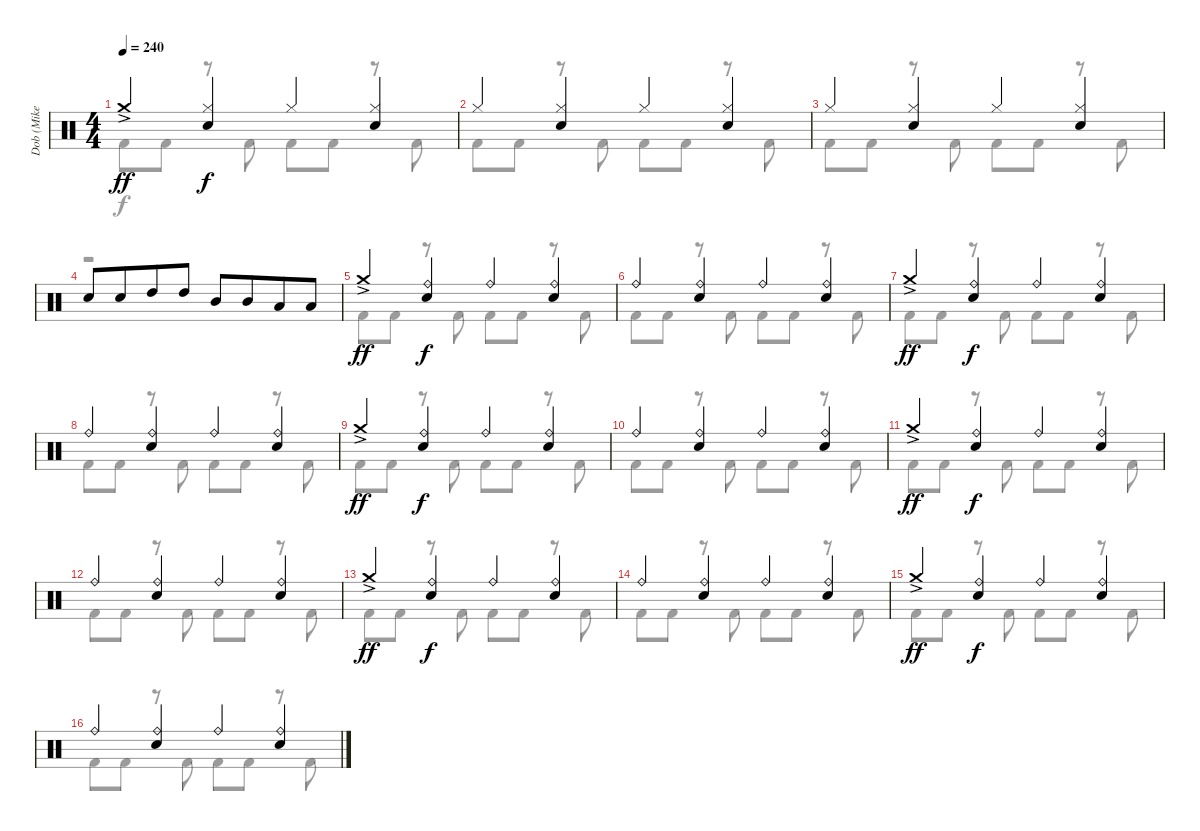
\track ("Dob (Mike Terrana)" "Dob (Mike ") {instrument percussion}
\staff {score}
\articulation defaults
\voice
\ts (4 4)
\tempo 240
\clef neutral
\ks c "Crash medium (hit)"{ac}.4{dy ff}
("Hi-Hat (closed)" "Electric Snare (hit)").4{dy f} "Hi-Hat (closed)".4 ("Hi-Hat (closed)" "Electric Snare (hit)").4 |
"Hi-Hat (closed)".4 ("Hi-Hat (closed)" "Electric Snare (hit)").4 "Hi-Hat (closed)".4 ("Hi-Hat (closed)" "Electric Snare (hit)").4 |
"Hi-Hat (closed)".4 ("Hi-Hat (closed)" "Electric Snare (hit)").4 "Hi-Hat (closed)".4 ("Hi-Hat (closed)" "Electric Snare (hit)").4 |
"Electric Snare (hit)".8 "Electric Snare (hit)".8{beam merge} "High Tom (hit)".8 "High Tom (hit)".8 "Mid Tom (hit)".8 "Mid Tom (hit)".8{beam merge} "Low Tom (hit)".8 "Low Tom (hit)".8 |
"Crash medium (hit)"{ac}.4{dy ff} ("Ride (bell)" "Electric Snare (hit)").4{dy f} "Ride (bell)".4 ("Ride (bell)" "Electric Snare (hit)").4 |
"Ride (bell)".4 ("Ride (bell)" "Electric Snare (hit)").4 "Ride (bell)".4 ("Ride (bell)" "Electric Snare (hit)").4 |
"Crash medium (hit)"{ac}.4{dy ff} ("Ride (bell)" "Electric Snare (hit)").4{dy f} "Ride (bell)".4 ("Ride (bell)" "Electric Snare (hit)").4 |
"Ride (bell)".4 ("Ride (bell)" "Electric Snare (hit)").4 "Ride (bell)".4 ("Ride (bell)" "Electric Snare (hit)").4 |
"Crash medium (hit)"{ac}.4{dy ff} ("Ride (bell)" "Electric Snare (hit)").4{dy f} "Ride (bell)".4 ("Ride (bell)" "Electric Snare (hit)").4 |
"Ride (bell)".4 ("Ride (bell)" "Electric Snare (hit)").4 "Ride (bell)".4 ("Ride (bell)" "Electric Snare (hit)").4 |
"Crash medium (hit)"{ac}.4{dy ff} ("Ride (bell)" "Electric Snare (hit)").4{dy f} "Ride (bell)".4 ("Ride (bell)" "Electric Snare (hit)").4 |
"Ride (bell)".4 ("Ride (bell)" "Electric Snare (hit)").4 "Ride (bell)".4 ("Ride (bell)" "Electric Snare (hit)").4 |
"Crash medium (hit)"{ac}.4{dy ff} ("Ride (bell)" "Electric Snare (hit)").4{dy f} "Ride (bell)".4 ("Ride (bell)" "Electric Snare (hit)").4 |
"Ride (bell)".4 ("Ride (bell)" "Electric Snare (hit)").4 "Ride (bell)".4 ("Ride (bell)" "Electric Snare (hit)").4 |
"Crash medium (hit)"{ac}.4{dy ff} ("Ride (bell)" "Electric Snare (hit)").4{dy f} "Ride (bell)".4 ("Ride (bell)" "Electric Snare (hit)").4 |
"Ride (bell)".4 ("Ride (bell)" "Electric Snare (hit)").4 "Ride (bell)".4 ("Ride (bell)" "Electric Snare (hit)").4
\voice
\clef neutral
\ottava regular
\simile none
\ks c "Kick (hit) 2".8{dy f} "Kick (hit) 2".8
r.8 "Kick (hit) 2".8 "Kick (hit) 2".8 "Kick (hit) 2".8 r.8 "Kick (hit) 2".8 |
"Kick (hit) 2".8 "Kick (hit) 2".8 r.8 "Kick (hit) 2".8 "Kick (hit) 2".8 "Kick (hit) 2".8 r.8 "Kick (hit) 2".8 |
"Kick (hit) 2".8 "Kick (hit) 2".8 r.8 "Kick (hit) 2".8 "Kick (hit) 2".8 "Kick (hit) 2".8 r.8 "Kick (hit) 2".8 |
r.1 |
"Kick (hit) 2".8 "Kick (hit) 2".8 r.8 "Kick (hit) 2".8 "Kick (hit) 2".8 "Kick (hit) 2".8 r.8 "Kick (hit) 2".8 |
"Kick (hit) 2".8 "Kick (hit) 2".8 r.8 "Kick (hit) 2".8 "Kick (hit) 2".8 "Kick (hit) 2".8 r.8 "Kick (hit) 2".8 |
"Kick (hit) 2".8 "Kick (hit) 2".8 r.8 "Kick (hit) 2".8 "Kick (hit) 2".8 "Kick (hit) 2".8 r.8 "Kick (hit) 2".8 |
"Kick (hit) 2".8 "Kick (hit) 2".8 r.8 "Kick (hit) 2".8 "Kick (hit) 2".8 "Kick (hit) 2".8 r.8 "Kick (hit) 2".8 |
"Kick (hit) 2".8 "Kick (hit) 2".8 r.8 "Kick (hit) 2".8 "Kick (hit) 2".8 "Kick (hit) 2".8 r.8 "Kick (hit) 2".8 |
"Kick (hit) 2".8 "Kick (hit) 2".8 r.8 "Kick (hit) 2".8 "Kick (hit) 2".8 "Kick (hit) 2".8 r.8 "Kick (hit) 2".8 |
"Kick (hit) 2".8 "Kick (hit) 2".8 r.8 "Kick (hit) 2".8 "Kick (hit) 2".8 "Kick (hit) 2".8 r.8 "Kick (hit) 2".8 |
"Kick (hit) 2".8 "Kick (hit) 2".8 r.8 "Kick (hit) 2".8 "Kick (hit) 2".8 "Kick (hit) 2".8 r.8 "Kick (hit) 2".8 |
"Kick (hit) 2".8 "Kick (hit) 2".8 r.8 "Kick (hit) 2".8 "Kick (hit) 2".8 "Kick (hit) 2".8 r.8 "Kick (hit) 2".8 |
"Kick (hit) 2".8 "Kick (hit) 2".8 r.8 "Kick (hit) 2".8 "Kick (hit) 2".8 "Kick (hit) 2".8 r.8 "Kick (hit) 2".8 |
"Kick (hit) 2".8 "Kick (hit) 2".8 r.8 "Kick (hit) 2".8 "Kick (hit) 2".8 "Kick (hit) 2".8 r.8 "Kick (hit) 2".8 |
"Kick (hit) 2".8 "Kick (hit) 2".8 r.8 "Kick (hit) 2".8 "Kick (hit) 2".8 "Kick (hit) 2".8 r.8 "Kick (hit) 2".8
